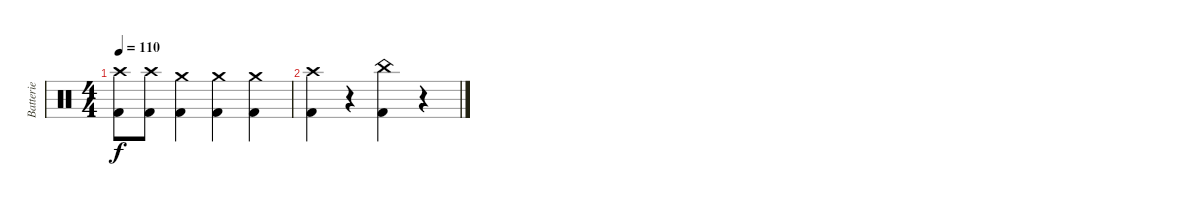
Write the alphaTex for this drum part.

\track ("Batterie" "Batterie") {instrument percussion}
\staff {score}
\articulation defaults
\ts (4 4)
\tempo 110
\clef neutral
\ks c
("Crash high (hit)" "Kick (hit) 2").8{dy f} ("Crash high (hit)" "Kick (hit) 2").8 ("Crash medium (hit)" "Kick (hit) 2").4 ("Crash medium (hit)" "Kick (hit) 2").4 ("Crash medium (hit)" "Kick (hit) 2").4 |
("Crash high (hit)" "Kick (hit) 2").4 r.4 ("China (hit)" "Kick (hit) 2").4 r.4
